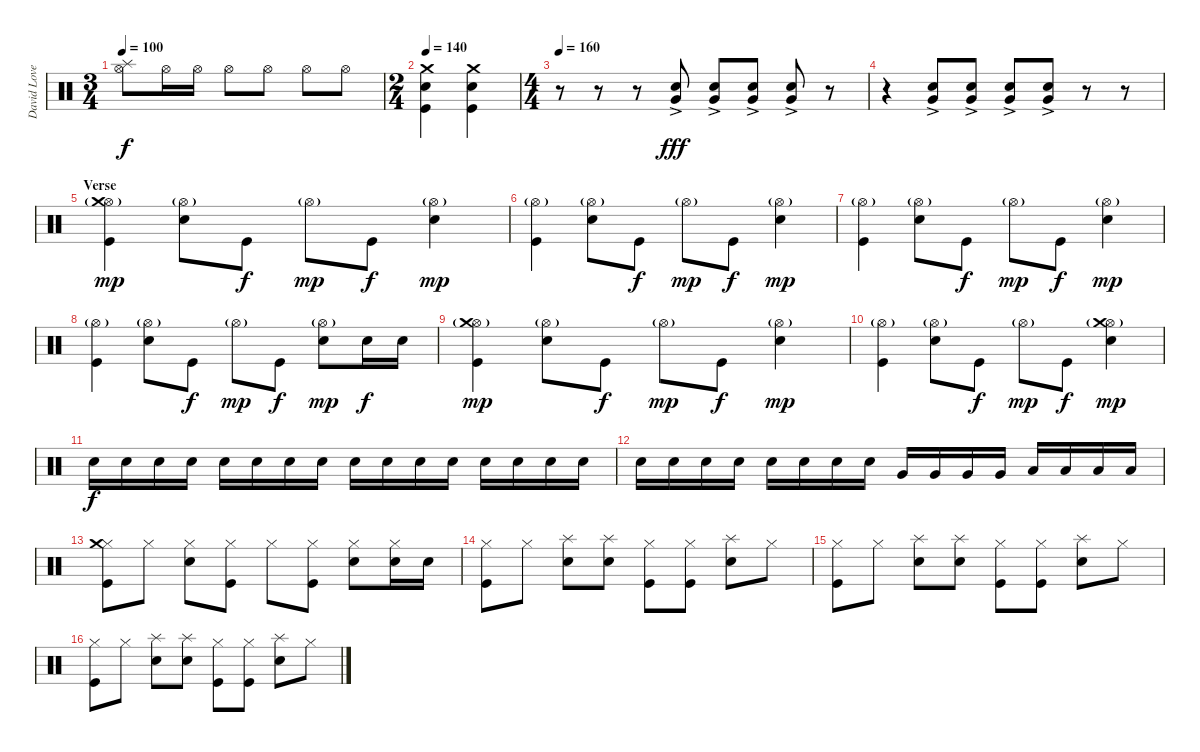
\track ("David Lovering" "David Love") {instrument percussion}
\staff {score}
\articulation defaults
\ts (3 4)
\tempo 100
\clef neutral
\ks c
("Hi-Hat (open)" "Splash (hit)").8{dy f} "Hi-Hat (open)".16 "Hi-Hat (open)".16 "Hi-Hat (open)".8 "Hi-Hat (open)".8 "Hi-Hat (open)".8 "Hi-Hat (open)".8 |
\ts (2 4)
\tempo 140
("Crash medium (hit)" "Snare (hit) 2" "Kick (hit)").4 ("Crash medium (hit)" "Snare (hit) 2" "Kick (hit)").4 |
\ts (4 4)
\tempo 160
r.8 r.8 r.8 ("Snare (hit) 2"{ac} "Very Low Tom (hit)"{ac}).8{dy fff} ("Snare (hit) 2"{ac} "Very Low Tom (hit)"{ac}).8 ("Snare (hit) 2"{ac} "Very Low Tom (hit)"{ac}).8 ("Snare (hit) 2"{ac} "Very Low Tom (hit)"{ac}).8 r.8 |
r.4 ("Snare (hit) 2"{ac} "Very Low Tom (hit)"{ac}).8 ("Snare (hit) 2"{ac} "Very Low Tom (hit)"{ac}).8 ("Snare (hit) 2"{ac} "Very Low Tom (hit)"{ac}).8 ("Snare (hit) 2"{ac} "Very Low Tom (hit)"{ac}).8 r.8 r.8 |
\section ("" "Verse")
("Hi-Hat (open)"{g} "Crash medium (hit)" "Kick (hit)").4{dy mp} ("Hi-Hat (open)"{g} "Snare (hit) 2").8 "Kick (hit)".8{dy f} "Hi-Hat (open)"{g}.8{dy mp} "Kick (hit)".8{dy f} ("Hi-Hat (open)"{g} "Snare (hit) 2").4{dy mp} |
("Hi-Hat (open)"{g} "Kick (hit)").4 ("Hi-Hat (open)"{g} "Snare (hit) 2").8 "Kick (hit)".8{dy f} "Hi-Hat (open)"{g}.8{dy mp} "Kick (hit)".8{dy f} ("Hi-Hat (open)"{g} "Snare (hit) 2").4{dy mp} |
("Hi-Hat (open)"{g} "Kick (hit)").4 ("Hi-Hat (open)"{g} "Snare (hit) 2").8 "Kick (hit)".8{dy f} "Hi-Hat (open)"{g}.8{dy mp} "Kick (hit)".8{dy f} ("Hi-Hat (open)"{g} "Snare (hit) 2").4{dy mp} |
("Hi-Hat (open)"{g} "Kick (hit)").4 ("Hi-Hat (open)"{g} "Snare (hit) 2").8 "Kick (hit)".8{dy f} "Hi-Hat (open)"{g}.8{dy mp} "Kick (hit)".8{dy f} ("Hi-Hat (open)"{g} "Snare (hit) 2").8{dy mp} "Snare (hit) 2".16{dy f} "Snare (hit) 2".16 |
("Hi-Hat (open)"{g} "Crash medium (hit)" "Kick (hit)").4{dy mp} ("Hi-Hat (open)"{g} "Snare (hit) 2").8 "Kick (hit)".8{dy f} "Hi-Hat (open)"{g}.8{dy mp} "Kick (hit)".8{dy f} ("Hi-Hat (open)"{g} "Snare (hit) 2").4{dy mp} |
("Hi-Hat (open)"{g} "Kick (hit)").4 ("Hi-Hat (open)"{g} "Snare (hit) 2").8 "Kick (hit)".8{dy f} "Hi-Hat (open)"{g}.8{dy mp} "Kick (hit)".8{dy f} ("Hi-Hat (open)"{g} "Crash medium (hit)" "Snare (hit) 2").4{dy mp} |
"Snare (hit) 2".16{dy f} "Snare (hit) 2".16 "Snare (hit) 2".16 "Snare (hit) 2".16 "Snare (hit) 2".16 "Snare (hit) 2".16 "Snare (hit) 2".16 "Snare (hit) 2".16 "Snare (hit) 2".16 "Snare (hit) 2".16 "Snare (hit) 2".16 "Snare (hit) 2".16 "Snare (hit) 2".16 "Snare (hit) 2".16 "Snare (hit) 2".16 "Snare (hit) 2".16 |
"Snare (hit) 2".16 "Snare (hit) 2".16 "Snare (hit) 2".16 "Snare (hit) 2".16 "Snare (hit) 2".16 "Snare (hit) 2".16 "Snare (hit) 2".16 "Snare (hit) 2".16 "Very Low Tom (hit)".16 "Very Low Tom (hit)".16 "Very Low Tom (hit)".16 "Very Low Tom (hit)".16 "Low Floor Tom (hit)".16 "Low Floor Tom (hit)".16 "Low Floor Tom (hit)".16 "Low Floor Tom (hit)".16 |
("Hi-Hat (closed)" "Crash medium (hit)" "Kick (hit)").8 "Hi-Hat (closed)".8 ("Hi-Hat (closed)" "Snare (hit) 2").8 ("Hi-Hat (closed)" "Kick (hit)").8 "Hi-Hat (closed)".8 ("Hi-Hat (closed)" "Kick (hit)").8 ("Hi-Hat (closed)" "Snare (hit) 2").8 ("Hi-Hat (closed)" "Snare (hit) 2").16 "Snare (hit) 2".16 |
("Hi-Hat (closed)" "Kick (hit)").8 "Hi-Hat (closed)".8 ("Splash (hit)" "Snare (hit) 2").8 ("Splash (hit)" "Snare (hit) 2").8 ("Hi-Hat (closed)" "Kick (hit)").8 ("Hi-Hat (closed)" "Kick (hit)").8 ("Splash (hit)" "Snare (hit) 2").8 "Hi-Hat (closed)".8 |
("Hi-Hat (closed)" "Kick (hit)").8 "Hi-Hat (closed)".8 ("Splash (hit)" "Snare (hit) 2").8 ("Splash (hit)" "Snare (hit) 2").8 ("Hi-Hat (closed)" "Kick (hit)").8 ("Hi-Hat (closed)" "Kick (hit)").8 ("Splash (hit)" "Snare (hit) 2").8 "Hi-Hat (closed)".8 |
("Hi-Hat (closed)" "Kick (hit)").8 "Hi-Hat (closed)".8 ("Splash (hit)" "Snare (hit) 2").8 ("Splash (hit)" "Snare (hit) 2").8 ("Hi-Hat (closed)" "Kick (hit)").8 ("Hi-Hat (closed)" "Kick (hit)").8 ("Splash (hit)" "Snare (hit) 2").8 "Hi-Hat (closed)".8
